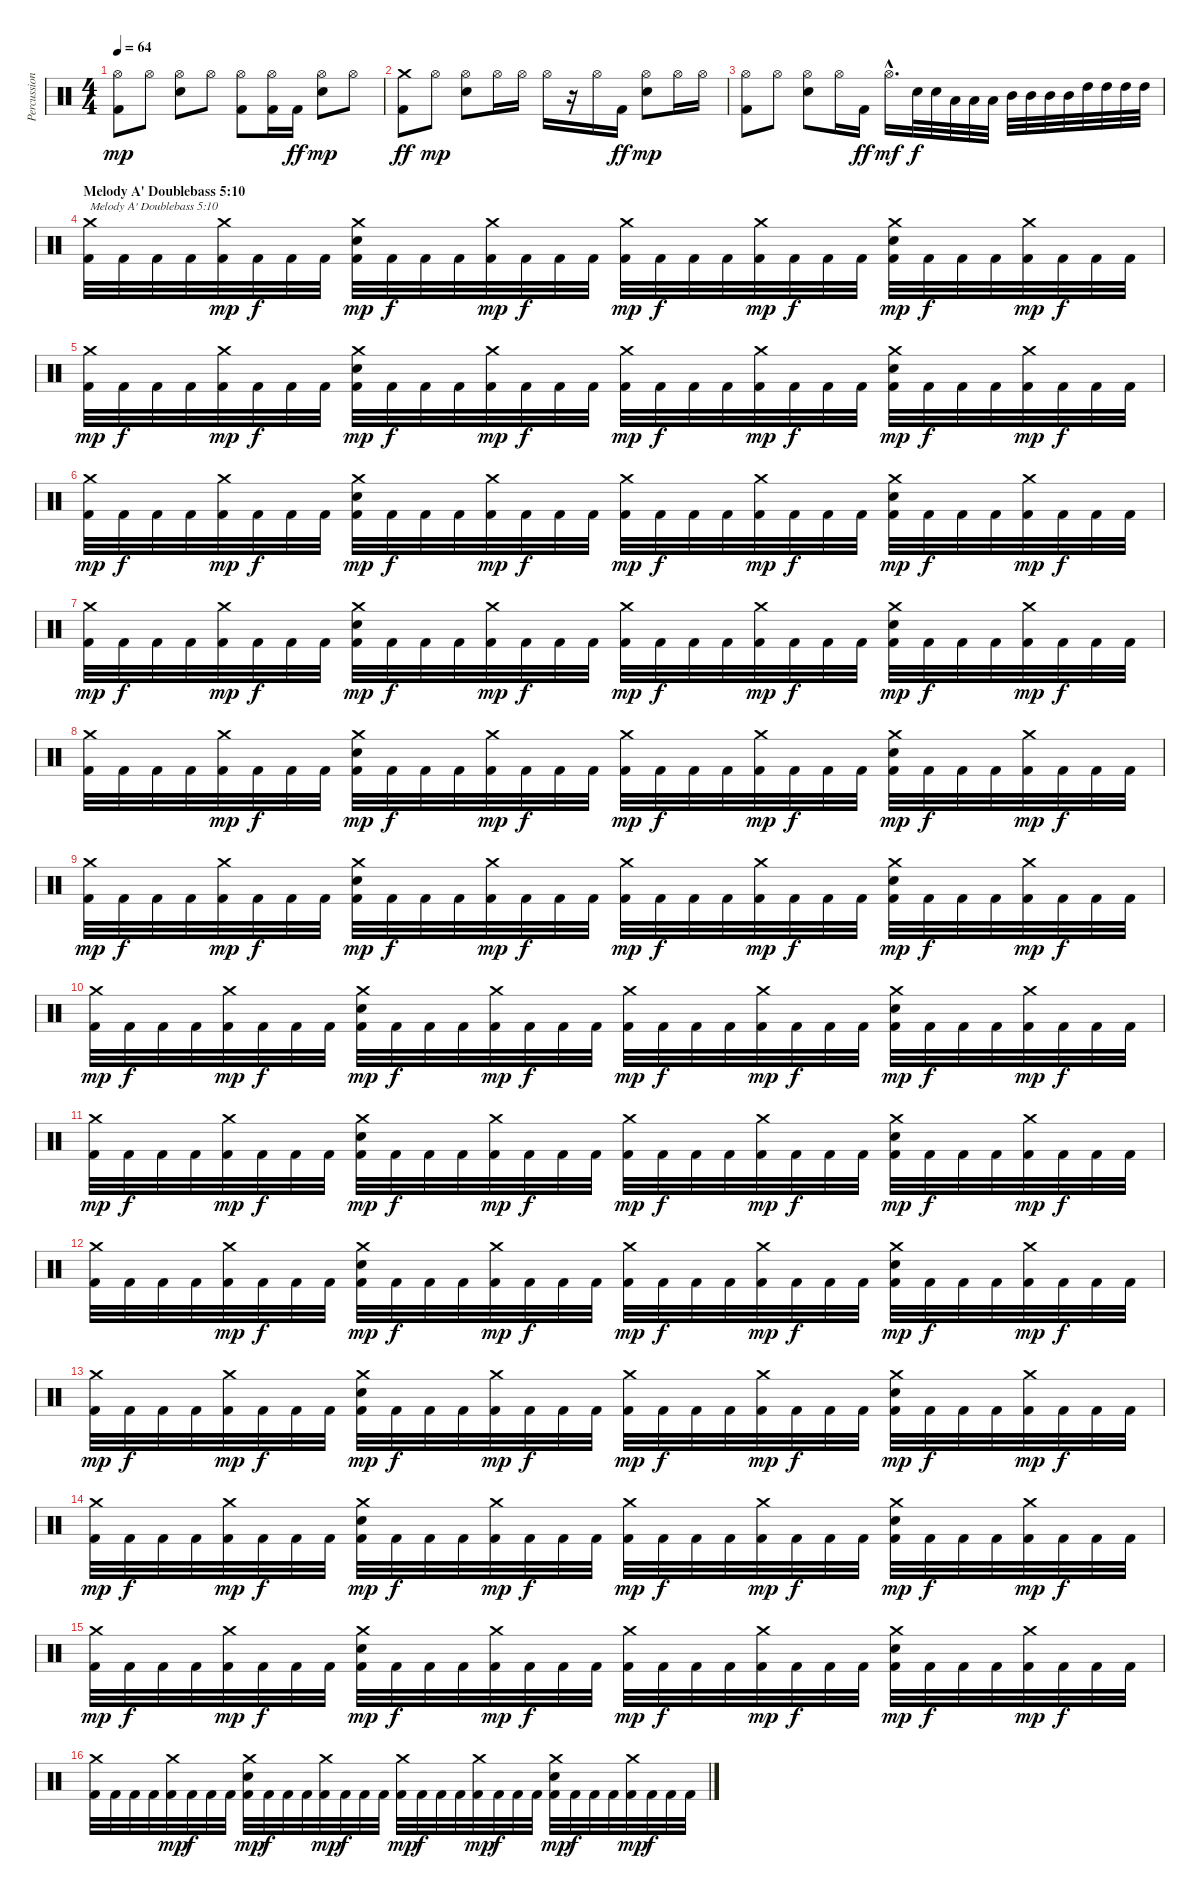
\track ("Percussion" "Percussion") {instrument percussion}
\staff {score}
\articulation defaults
\ts (4 4)
\tempo 64
\clef neutral
\ks c
("Kick (hit) 2" "Hi-Hat (open)").8{dy mp} "Hi-Hat (open)".8 ("Electric Snare (hit)" "Hi-Hat (open)").8 "Hi-Hat (open)".8 ("Kick (hit) 2" "Hi-Hat (open)").8 ("Kick (hit) 2" "Hi-Hat (open)").16 "Kick (hit) 2".16{dy ff} ("Electric Snare (hit)" "Hi-Hat (open)").8{dy mp} "Hi-Hat (open)".8 |
("Kick (hit) 2" "Crash medium (hit)").8{dy ff} "Hi-Hat (open)".8{dy mp} ("Electric Snare (hit)" "Hi-Hat (open)").8 "Hi-Hat (open)".16 "Hi-Hat (open)".16 "Hi-Hat (open)".16 r.16 "Hi-Hat (open)".16 "Kick (hit) 2".16{dy ff} ("Electric Snare (hit)" "Hi-Hat (open)").8{dy mp} "Hi-Hat (open)".16 "Hi-Hat (open)".16 |
("Kick (hit) 2" "Hi-Hat (open)").8 "Hi-Hat (open)".8 ("Electric Snare (hit)" "Hi-Hat (open)").8 "Hi-Hat (open)".16 "Kick (hit) 2".16{dy ff} "Hi-Hat (open)"{hac}.16{d dy mf} "Electric Snare (hit)".32{dy f} "Electric Snare (hit)".32 "Low Tom (hit)".32 "Low Tom (hit)".32 "Low Tom (hit)".32 "Mid Tom (hit)".32 "Mid Tom (hit)".32 "Mid Tom (hit)".32 "Mid Tom (hit)".32 "High Tom (hit)".32 "High Tom (hit)".32 "High Tom (hit)".32 "High Tom (hit)".32 |
\section ("" "Melody A' Doublebass 5:10")
("Kick (hit) 2" "Crash medium (hit)").32{txt "Melody A' Doublebass 5:10"} "Kick (hit) 2".32 "Kick (hit) 2".32 "Kick (hit) 2".32 ("Kick (hit) 2" "Crash medium (hit)").32{dy mp} "Kick (hit) 2".32{dy f} "Kick (hit) 2".32 "Kick (hit) 2".32 ("Kick (hit) 2" "Electric Snare (hit)" "Crash medium (hit)").32{dy mp} "Kick (hit) 2".32{dy f} "Kick (hit) 2".32 "Kick (hit) 2".32 ("Kick (hit) 2" "Crash medium (hit)").32{dy mp} "Kick (hit) 2".32{dy f} "Kick (hit) 2".32 "Kick (hit) 2".32 ("Kick (hit) 2" "Crash medium (hit)").32{dy mp} "Kick (hit) 2".32{dy f} "Kick (hit) 2".32 "Kick (hit) 2".32 ("Kick (hit) 2" "Crash medium (hit)").32{dy mp} "Kick (hit) 2".32{dy f} "Kick (hit) 2".32 "Kick (hit) 2".32 ("Kick (hit) 2" "Electric Snare (hit)" "Crash medium (hit)").32{dy mp} "Kick (hit) 2".32{dy f} "Kick (hit) 2".32 "Kick (hit) 2".32 ("Kick (hit) 2" "Crash medium (hit)").32{dy mp} "Kick (hit) 2".32{dy f} "Kick (hit) 2".32 "Kick (hit) 2".32 |
("Kick (hit) 2" "Crash medium (hit)").32{dy mp} "Kick (hit) 2".32{dy f} "Kick (hit) 2".32 "Kick (hit) 2".32 ("Kick (hit) 2" "Crash medium (hit)").32{dy mp} "Kick (hit) 2".32{dy f} "Kick (hit) 2".32 "Kick (hit) 2".32 ("Kick (hit) 2" "Electric Snare (hit)" "Crash medium (hit)").32{dy mp} "Kick (hit) 2".32{dy f} "Kick (hit) 2".32 "Kick (hit) 2".32 ("Kick (hit) 2" "Crash medium (hit)").32{dy mp} "Kick (hit) 2".32{dy f} "Kick (hit) 2".32 "Kick (hit) 2".32 ("Kick (hit) 2" "Crash medium (hit)").32{dy mp} "Kick (hit) 2".32{dy f} "Kick (hit) 2".32 "Kick (hit) 2".32 ("Kick (hit) 2" "Crash medium (hit)").32{dy mp} "Kick (hit) 2".32{dy f} "Kick (hit) 2".32 "Kick (hit) 2".32 ("Kick (hit) 2" "Electric Snare (hit)" "Crash medium (hit)").32{dy mp} "Kick (hit) 2".32{dy f} "Kick (hit) 2".32 "Kick (hit) 2".32 ("Kick (hit) 2" "Crash medium (hit)").32{dy mp} "Kick (hit) 2".32{dy f} "Kick (hit) 2".32 "Kick (hit) 2".32 |
("Kick (hit) 2" "Crash medium (hit)").32{dy mp} "Kick (hit) 2".32{dy f} "Kick (hit) 2".32 "Kick (hit) 2".32 ("Kick (hit) 2" "Crash medium (hit)").32{dy mp} "Kick (hit) 2".32{dy f} "Kick (hit) 2".32 "Kick (hit) 2".32 ("Kick (hit) 2" "Electric Snare (hit)" "Crash medium (hit)").32{dy mp} "Kick (hit) 2".32{dy f} "Kick (hit) 2".32 "Kick (hit) 2".32 ("Kick (hit) 2" "Crash medium (hit)").32{dy mp} "Kick (hit) 2".32{dy f} "Kick (hit) 2".32 "Kick (hit) 2".32 ("Kick (hit) 2" "Crash medium (hit)").32{dy mp} "Kick (hit) 2".32{dy f} "Kick (hit) 2".32 "Kick (hit) 2".32 ("Kick (hit) 2" "Crash medium (hit)").32{dy mp} "Kick (hit) 2".32{dy f} "Kick (hit) 2".32 "Kick (hit) 2".32 ("Kick (hit) 2" "Electric Snare (hit)" "Crash medium (hit)").32{dy mp} "Kick (hit) 2".32{dy f} "Kick (hit) 2".32 "Kick (hit) 2".32 ("Kick (hit) 2" "Crash medium (hit)").32{dy mp} "Kick (hit) 2".32{dy f} "Kick (hit) 2".32 "Kick (hit) 2".32 |
("Kick (hit) 2" "Crash medium (hit)").32{dy mp} "Kick (hit) 2".32{dy f} "Kick (hit) 2".32 "Kick (hit) 2".32 ("Kick (hit) 2" "Crash medium (hit)").32{dy mp} "Kick (hit) 2".32{dy f} "Kick (hit) 2".32 "Kick (hit) 2".32 ("Kick (hit) 2" "Electric Snare (hit)" "Crash medium (hit)").32{dy mp} "Kick (hit) 2".32{dy f} "Kick (hit) 2".32 "Kick (hit) 2".32 ("Kick (hit) 2" "Crash medium (hit)").32{dy mp} "Kick (hit) 2".32{dy f} "Kick (hit) 2".32 "Kick (hit) 2".32 ("Kick (hit) 2" "Crash medium (hit)").32{dy mp} "Kick (hit) 2".32{dy f} "Kick (hit) 2".32 "Kick (hit) 2".32 ("Kick (hit) 2" "Crash medium (hit)").32{dy mp} "Kick (hit) 2".32{dy f} "Kick (hit) 2".32 "Kick (hit) 2".32 ("Kick (hit) 2" "Electric Snare (hit)" "Crash medium (hit)").32{dy mp} "Kick (hit) 2".32{dy f} "Kick (hit) 2".32 "Kick (hit) 2".32 ("Kick (hit) 2" "Crash medium (hit)").32{dy mp} "Kick (hit) 2".32{dy f} "Kick (hit) 2".32 "Kick (hit) 2".32 |
("Kick (hit) 2" "Crash medium (hit)").32 "Kick (hit) 2".32 "Kick (hit) 2".32 "Kick (hit) 2".32 ("Kick (hit) 2" "Crash medium (hit)").32{dy mp} "Kick (hit) 2".32{dy f} "Kick (hit) 2".32 "Kick (hit) 2".32 ("Kick (hit) 2" "Electric Snare (hit)" "Crash medium (hit)").32{dy mp} "Kick (hit) 2".32{dy f} "Kick (hit) 2".32 "Kick (hit) 2".32 ("Kick (hit) 2" "Crash medium (hit)").32{dy mp} "Kick (hit) 2".32{dy f} "Kick (hit) 2".32 "Kick (hit) 2".32 ("Kick (hit) 2" "Crash medium (hit)").32{dy mp} "Kick (hit) 2".32{dy f} "Kick (hit) 2".32 "Kick (hit) 2".32 ("Kick (hit) 2" "Crash medium (hit)").32{dy mp} "Kick (hit) 2".32{dy f} "Kick (hit) 2".32 "Kick (hit) 2".32 ("Kick (hit) 2" "Electric Snare (hit)" "Crash medium (hit)").32{dy mp} "Kick (hit) 2".32{dy f} "Kick (hit) 2".32 "Kick (hit) 2".32 ("Kick (hit) 2" "Crash medium (hit)").32{dy mp} "Kick (hit) 2".32{dy f} "Kick (hit) 2".32 "Kick (hit) 2".32 |
("Kick (hit) 2" "Crash medium (hit)").32{dy mp} "Kick (hit) 2".32{dy f} "Kick (hit) 2".32 "Kick (hit) 2".32 ("Kick (hit) 2" "Crash medium (hit)").32{dy mp} "Kick (hit) 2".32{dy f} "Kick (hit) 2".32 "Kick (hit) 2".32 ("Kick (hit) 2" "Electric Snare (hit)" "Crash medium (hit)").32{dy mp} "Kick (hit) 2".32{dy f} "Kick (hit) 2".32 "Kick (hit) 2".32 ("Kick (hit) 2" "Crash medium (hit)").32{dy mp} "Kick (hit) 2".32{dy f} "Kick (hit) 2".32 "Kick (hit) 2".32 ("Kick (hit) 2" "Crash medium (hit)").32{dy mp} "Kick (hit) 2".32{dy f} "Kick (hit) 2".32 "Kick (hit) 2".32 ("Kick (hit) 2" "Crash medium (hit)").32{dy mp} "Kick (hit) 2".32{dy f} "Kick (hit) 2".32 "Kick (hit) 2".32 ("Kick (hit) 2" "Electric Snare (hit)" "Crash medium (hit)").32{dy mp} "Kick (hit) 2".32{dy f} "Kick (hit) 2".32 "Kick (hit) 2".32 ("Kick (hit) 2" "Crash medium (hit)").32{dy mp} "Kick (hit) 2".32{dy f} "Kick (hit) 2".32 "Kick (hit) 2".32 |
("Kick (hit) 2" "Crash medium (hit)").32{dy mp} "Kick (hit) 2".32{dy f} "Kick (hit) 2".32 "Kick (hit) 2".32 ("Kick (hit) 2" "Crash medium (hit)").32{dy mp} "Kick (hit) 2".32{dy f} "Kick (hit) 2".32 "Kick (hit) 2".32 ("Kick (hit) 2" "Electric Snare (hit)" "Crash medium (hit)").32{dy mp} "Kick (hit) 2".32{dy f} "Kick (hit) 2".32 "Kick (hit) 2".32 ("Kick (hit) 2" "Crash medium (hit)").32{dy mp} "Kick (hit) 2".32{dy f} "Kick (hit) 2".32 "Kick (hit) 2".32 ("Kick (hit) 2" "Crash medium (hit)").32{dy mp} "Kick (hit) 2".32{dy f} "Kick (hit) 2".32 "Kick (hit) 2".32 ("Kick (hit) 2" "Crash medium (hit)").32{dy mp} "Kick (hit) 2".32{dy f} "Kick (hit) 2".32 "Kick (hit) 2".32 ("Kick (hit) 2" "Electric Snare (hit)" "Crash medium (hit)").32{dy mp} "Kick (hit) 2".32{dy f} "Kick (hit) 2".32 "Kick (hit) 2".32 ("Kick (hit) 2" "Crash medium (hit)").32{dy mp} "Kick (hit) 2".32{dy f} "Kick (hit) 2".32 "Kick (hit) 2".32 |
("Kick (hit) 2" "Crash medium (hit)").32{dy mp} "Kick (hit) 2".32{dy f} "Kick (hit) 2".32 "Kick (hit) 2".32 ("Kick (hit) 2" "Crash medium (hit)").32{dy mp} "Kick (hit) 2".32{dy f} "Kick (hit) 2".32 "Kick (hit) 2".32 ("Kick (hit) 2" "Electric Snare (hit)" "Crash medium (hit)").32{dy mp} "Kick (hit) 2".32{dy f} "Kick (hit) 2".32 "Kick (hit) 2".32 ("Kick (hit) 2" "Crash medium (hit)").32{dy mp} "Kick (hit) 2".32{dy f} "Kick (hit) 2".32 "Kick (hit) 2".32 ("Kick (hit) 2" "Crash medium (hit)").32{dy mp} "Kick (hit) 2".32{dy f} "Kick (hit) 2".32 "Kick (hit) 2".32 ("Kick (hit) 2" "Crash medium (hit)").32{dy mp} "Kick (hit) 2".32{dy f} "Kick (hit) 2".32 "Kick (hit) 2".32 ("Kick (hit) 2" "Electric Snare (hit)" "Crash medium (hit)").32{dy mp} "Kick (hit) 2".32{dy f} "Kick (hit) 2".32 "Kick (hit) 2".32 ("Kick (hit) 2" "Crash medium (hit)").32{dy mp} "Kick (hit) 2".32{dy f} "Kick (hit) 2".32 "Kick (hit) 2".32 |
("Kick (hit) 2" "Crash medium (hit)").32 "Kick (hit) 2".32 "Kick (hit) 2".32 "Kick (hit) 2".32 ("Kick (hit) 2" "Crash medium (hit)").32{dy mp} "Kick (hit) 2".32{dy f} "Kick (hit) 2".32 "Kick (hit) 2".32 ("Kick (hit) 2" "Electric Snare (hit)" "Crash medium (hit)").32{dy mp} "Kick (hit) 2".32{dy f} "Kick (hit) 2".32 "Kick (hit) 2".32 ("Kick (hit) 2" "Crash medium (hit)").32{dy mp} "Kick (hit) 2".32{dy f} "Kick (hit) 2".32 "Kick (hit) 2".32 ("Kick (hit) 2" "Crash medium (hit)").32{dy mp} "Kick (hit) 2".32{dy f} "Kick (hit) 2".32 "Kick (hit) 2".32 ("Kick (hit) 2" "Crash medium (hit)").32{dy mp} "Kick (hit) 2".32{dy f} "Kick (hit) 2".32 "Kick (hit) 2".32 ("Kick (hit) 2" "Electric Snare (hit)" "Crash medium (hit)").32{dy mp} "Kick (hit) 2".32{dy f} "Kick (hit) 2".32 "Kick (hit) 2".32 ("Kick (hit) 2" "Crash medium (hit)").32{dy mp} "Kick (hit) 2".32{dy f} "Kick (hit) 2".32 "Kick (hit) 2".32 |
("Kick (hit) 2" "Crash medium (hit)").32{dy mp} "Kick (hit) 2".32{dy f} "Kick (hit) 2".32 "Kick (hit) 2".32 ("Kick (hit) 2" "Crash medium (hit)").32{dy mp} "Kick (hit) 2".32{dy f} "Kick (hit) 2".32 "Kick (hit) 2".32 ("Kick (hit) 2" "Electric Snare (hit)" "Crash medium (hit)").32{dy mp} "Kick (hit) 2".32{dy f} "Kick (hit) 2".32 "Kick (hit) 2".32 ("Kick (hit) 2" "Crash medium (hit)").32{dy mp} "Kick (hit) 2".32{dy f} "Kick (hit) 2".32 "Kick (hit) 2".32 ("Kick (hit) 2" "Crash medium (hit)").32{dy mp} "Kick (hit) 2".32{dy f} "Kick (hit) 2".32 "Kick (hit) 2".32 ("Kick (hit) 2" "Crash medium (hit)").32{dy mp} "Kick (hit) 2".32{dy f} "Kick (hit) 2".32 "Kick (hit) 2".32 ("Kick (hit) 2" "Electric Snare (hit)" "Crash medium (hit)").32{dy mp} "Kick (hit) 2".32{dy f} "Kick (hit) 2".32 "Kick (hit) 2".32 ("Kick (hit) 2" "Crash medium (hit)").32{dy mp} "Kick (hit) 2".32{dy f} "Kick (hit) 2".32 "Kick (hit) 2".32 |
("Kick (hit) 2" "Crash medium (hit)").32{dy mp} "Kick (hit) 2".32{dy f} "Kick (hit) 2".32 "Kick (hit) 2".32 ("Kick (hit) 2" "Crash medium (hit)").32{dy mp} "Kick (hit) 2".32{dy f} "Kick (hit) 2".32 "Kick (hit) 2".32 ("Kick (hit) 2" "Electric Snare (hit)" "Crash medium (hit)").32{dy mp} "Kick (hit) 2".32{dy f} "Kick (hit) 2".32 "Kick (hit) 2".32 ("Kick (hit) 2" "Crash medium (hit)").32{dy mp} "Kick (hit) 2".32{dy f} "Kick (hit) 2".32 "Kick (hit) 2".32 ("Kick (hit) 2" "Crash medium (hit)").32{dy mp} "Kick (hit) 2".32{dy f} "Kick (hit) 2".32 "Kick (hit) 2".32 ("Kick (hit) 2" "Crash medium (hit)").32{dy mp} "Kick (hit) 2".32{dy f} "Kick (hit) 2".32 "Kick (hit) 2".32 ("Kick (hit) 2" "Electric Snare (hit)" "Crash medium (hit)").32{dy mp} "Kick (hit) 2".32{dy f} "Kick (hit) 2".32 "Kick (hit) 2".32 ("Kick (hit) 2" "Crash medium (hit)").32{dy mp} "Kick (hit) 2".32{dy f} "Kick (hit) 2".32 "Kick (hit) 2".32 |
("Kick (hit) 2" "Crash medium (hit)").32{dy mp} "Kick (hit) 2".32{dy f} "Kick (hit) 2".32 "Kick (hit) 2".32 ("Kick (hit) 2" "Crash medium (hit)").32{dy mp} "Kick (hit) 2".32{dy f} "Kick (hit) 2".32 "Kick (hit) 2".32 ("Kick (hit) 2" "Electric Snare (hit)" "Crash medium (hit)").32{dy mp} "Kick (hit) 2".32{dy f} "Kick (hit) 2".32 "Kick (hit) 2".32 ("Kick (hit) 2" "Crash medium (hit)").32{dy mp} "Kick (hit) 2".32{dy f} "Kick (hit) 2".32 "Kick (hit) 2".32 ("Kick (hit) 2" "Crash medium (hit)").32{dy mp} "Kick (hit) 2".32{dy f} "Kick (hit) 2".32 "Kick (hit) 2".32 ("Kick (hit) 2" "Crash medium (hit)").32{dy mp} "Kick (hit) 2".32{dy f} "Kick (hit) 2".32 "Kick (hit) 2".32 ("Kick (hit) 2" "Electric Snare (hit)" "Crash medium (hit)").32{dy mp} "Kick (hit) 2".32{dy f} "Kick (hit) 2".32 "Kick (hit) 2".32 ("Kick (hit) 2" "Crash medium (hit)").32{dy mp} "Kick (hit) 2".32{dy f} "Kick (hit) 2".32 "Kick (hit) 2".32 |
("Kick (hit) 2" "Crash medium (hit)").32 "Kick (hit) 2".32 "Kick (hit) 2".32 "Kick (hit) 2".32 ("Kick (hit) 2" "Crash medium (hit)").32{dy mp} "Kick (hit) 2".32{dy f} "Kick (hit) 2".32 "Kick (hit) 2".32 ("Kick (hit) 2" "Electric Snare (hit)" "Crash medium (hit)").32{dy mp} "Kick (hit) 2".32{dy f} "Kick (hit) 2".32 "Kick (hit) 2".32 ("Kick (hit) 2" "Crash medium (hit)").32{dy mp} "Kick (hit) 2".32{dy f} "Kick (hit) 2".32 "Kick (hit) 2".32 ("Kick (hit) 2" "Crash medium (hit)").32{dy mp} "Kick (hit) 2".32{dy f} "Kick (hit) 2".32 "Kick (hit) 2".32 ("Kick (hit) 2" "Crash medium (hit)").32{dy mp} "Kick (hit) 2".32{dy f} "Kick (hit) 2".32 "Kick (hit) 2".32 ("Kick (hit) 2" "Electric Snare (hit)" "Crash medium (hit)").32{dy mp} "Kick (hit) 2".32{dy f} "Kick (hit) 2".32 "Kick (hit) 2".32 ("Kick (hit) 2" "Crash medium (hit)").32{dy mp} "Kick (hit) 2".32{dy f} "Kick (hit) 2".32 "Kick (hit) 2".32
